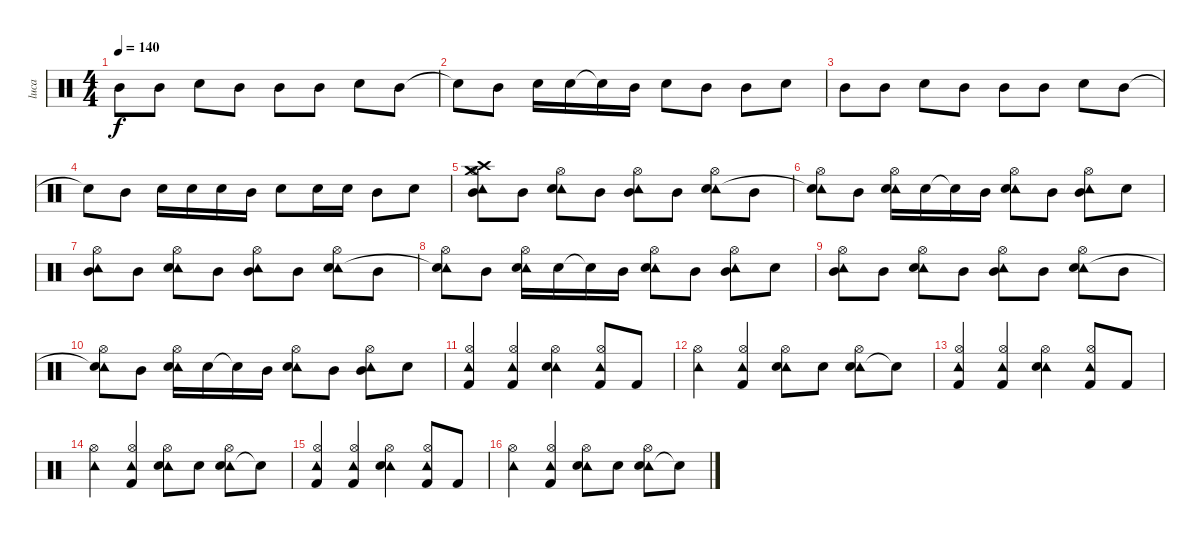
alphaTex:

\track ("luca" "luca") {instrument percussion}
\staff {score}
\articulation defaults
\ts (4 4)
\tempo 140
\clef neutral
\ks c "Mid Tom (hit)".8{dy f} "Mid Tom (hit)".8 "Snare (hit) 2".8 "Mid Tom (hit)".8 "Mid Tom (hit)".8 "Mid Tom (hit)".8 "Snare (hit) 2".8 "Mid Tom (hit)".8
|
"Snare (hit)"{t}.8 "Mid Tom (hit)".8 "Snare (hit) 2".16 "Snare (hit) 2".16 "Snare (hit) 2"{t}.16 "Mid Tom (hit)".16 "Snare (hit) 2".8 "Mid Tom (hit)".8 "Mid Tom (hit)".8 "Snare (hit) 2".8 |
"Mid Tom (hit)".8 "Mid Tom (hit)".8 "Snare (hit) 2".8 "Mid Tom (hit)".8 "Mid Tom (hit)".8 "Mid Tom (hit)".8 "Snare (hit) 2".8 "Mid Tom (hit)".8 |
"Snare (hit)"{t}.8 "Mid Tom (hit)".8 "Snare (hit) 2".16 "Snare (hit) 2".16 "Snare (hit) 2".16 "Mid Tom (hit)".16 "Snare (hit) 2".8 "Snare (hit) 2".16 "Snare (hit) 2".16 "Mid Tom (hit)".8 "Snare (hit) 2".8 |
("Tambourine (hit)" "Mid Tom (hit)" "Hi-Hat (open)" "Crash medium (hit)" "Crash high (hit)").8 "Mid Tom (hit)".8 ("Tambourine (hit)" "Snare (hit) 2" "Hi-Hat (open)").8 "Mid Tom (hit)".8 ("Tambourine (hit)" "Mid Tom (hit)" "Hi-Hat (open)").8 "Mid Tom (hit)".8 ("Tambourine (hit)" "Snare (hit) 2" "Hi-Hat (open)").8 "Mid Tom (hit)".8 |
("Tambourine (hit)" "Snare (hit)"{t} "Hi-Hat (open)").8 "Mid Tom (hit)".8 ("Tambourine (hit)" "Snare (hit) 2" "Hi-Hat (open)").16 "Snare (hit) 2".16 "Snare (hit) 2"{t}.16 "Mid Tom (hit)".16 ("Tambourine (hit)" "Snare (hit) 2" "Hi-Hat (open)").8 "Mid Tom (hit)".8 ("Tambourine (hit)" "Mid Tom (hit)" "Hi-Hat (open)").8 "Snare (hit) 2".8 |
("Tambourine (hit)" "Mid Tom (hit)" "Hi-Hat (open)").8 "Mid Tom (hit)".8 ("Tambourine (hit)" "Snare (hit) 2" "Hi-Hat (open)").8 "Mid Tom (hit)".8 ("Tambourine (hit)" "Mid Tom (hit)" "Hi-Hat (open)").8 "Mid Tom (hit)".8 ("Tambourine (hit)" "Snare (hit) 2" "Hi-Hat (open)").8 "Mid Tom (hit)".8 |
("Tambourine (hit)" "Snare (hit)"{t} "Hi-Hat (open)").8 "Mid Tom (hit)".8 ("Tambourine (hit)" "Snare (hit) 2" "Hi-Hat (open)").16 "Snare (hit) 2".16 "Snare (hit) 2"{t}.16 "Mid Tom (hit)".16 ("Tambourine (hit)" "Snare (hit) 2" "Hi-Hat (open)").8 "Mid Tom (hit)".8 ("Tambourine (hit)" "Mid Tom (hit)" "Hi-Hat (open)").8 "Snare (hit) 2".8 |
("Tambourine (hit)" "Mid Tom (hit)" "Hi-Hat (open)").8 "Mid Tom (hit)".8 ("Tambourine (hit)" "Snare (hit) 2" "Hi-Hat (open)").8 "Mid Tom (hit)".8 ("Tambourine (hit)" "Mid Tom (hit)" "Hi-Hat (open)").8 "Mid Tom (hit)".8 ("Tambourine (hit)" "Snare (hit) 2" "Hi-Hat (open)").8 "Mid Tom (hit)".8 |
("Tambourine (hit)" "Snare (hit)"{t} "Hi-Hat (open)").8 "Mid Tom (hit)".8 ("Tambourine (hit)" "Snare (hit) 2" "Hi-Hat (open)").16 "Snare (hit) 2".16 "Snare (hit) 2"{t}.16 "Mid Tom (hit)".16 ("Tambourine (hit)" "Snare (hit) 2" "Hi-Hat (open)").8 "Mid Tom (hit)".8 ("Tambourine (hit)" "Mid Tom (hit)" "Hi-Hat (open)").8 "Snare (hit) 2".8 |
("Kick (hit) 2" "Hi-Hat (open)" "Tambourine (hit)").4 ("Tambourine (hit)" "Hi-Hat (open)" "Kick (hit) 2").4 ("Tambourine (hit)" "Hi-Hat (open)" "Snare (hit) 2").4 ("Tambourine (hit)" "Hi-Hat (open)" "Kick (hit) 2").8 "Kick (hit) 2".8 |
("Tambourine (hit)" "Hi-Hat (open)").4 ("Tambourine (hit)" "Hi-Hat (open)" "Kick (hit) 2").4 ("Tambourine (hit)" "Hi-Hat (open)" "Snare (hit) 2").8 "Snare (hit) 2".8 ("Tambourine (hit)" "Hi-Hat (open)" "Snare (hit) 2").8 "Snare (hit)"{t}.8 |
("Kick (hit) 2" "Hi-Hat (open)" "Tambourine (hit)").4 ("Tambourine (hit)" "Hi-Hat (open)" "Kick (hit) 2").4 ("Tambourine (hit)" "Hi-Hat (open)" "Snare (hit) 2").4 ("Tambourine (hit)" "Hi-Hat (open)" "Kick (hit) 2").8 "Kick (hit) 2".8 |
("Tambourine (hit)" "Hi-Hat (open)").4 ("Tambourine (hit)" "Hi-Hat (open)" "Kick (hit) 2").4 ("Tambourine (hit)" "Hi-Hat (open)" "Snare (hit) 2").8 "Snare (hit) 2".8 ("Tambourine (hit)" "Hi-Hat (open)" "Snare (hit) 2").8 "Snare (hit)"{t}.8 |
("Kick (hit) 2" "Hi-Hat (open)" "Tambourine (hit)").4 ("Tambourine (hit)" "Hi-Hat (open)" "Kick (hit) 2").4 ("Tambourine (hit)" "Hi-Hat (open)" "Snare (hit) 2").4 ("Tambourine (hit)" "Hi-Hat (open)" "Kick (hit) 2").8 "Kick (hit) 2".8 |
("Tambourine (hit)" "Hi-Hat (open)").4 ("Tambourine (hit)" "Hi-Hat (open)" "Kick (hit) 2").4 ("Tambourine (hit)" "Hi-Hat (open)" "Snare (hit) 2").8 "Snare (hit) 2".8 ("Tambourine (hit)" "Hi-Hat (open)" "Snare (hit) 2").8 "Snare (hit)"{t}.8
